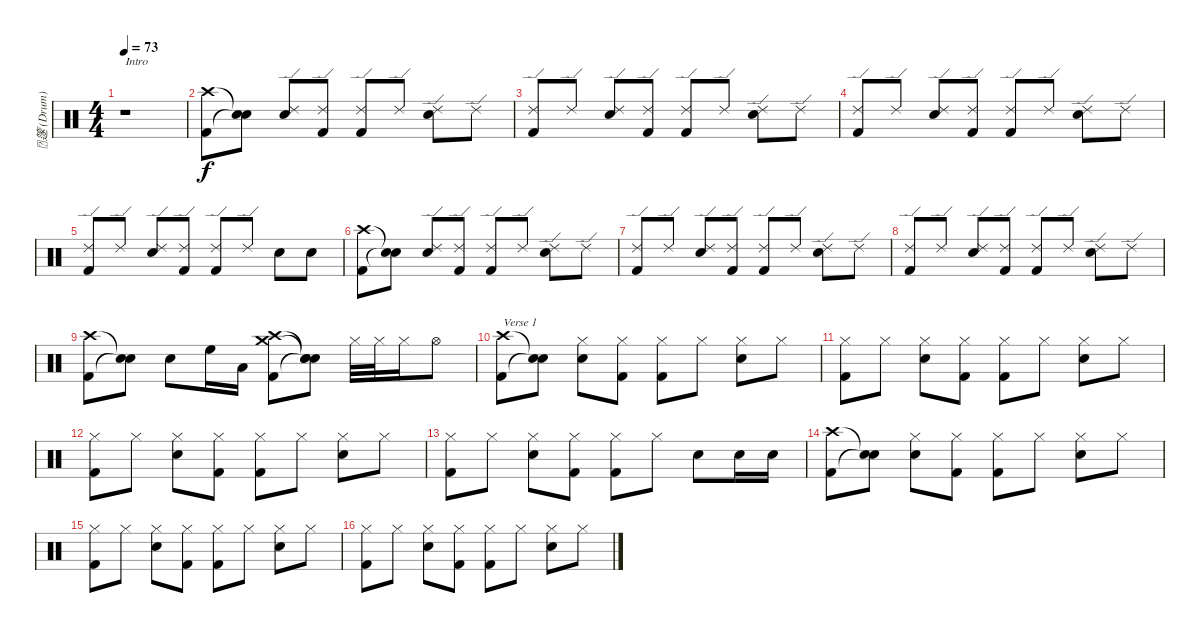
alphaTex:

\track ("篴 (Drum)" "篴 (Drum)") {instrument percussion}
\staff {score}
\articulation defaults
\ts (4 4)
\tempo 73
\clef neutral
\ks c
r.1{txt "Intro" dy f} |
("Crash high (hit)" "Kick (hit) 2").8 ("Snare (hit)"{t} "Snare (hit)"{t}).8 ("Ride (edge) 2" "Electric Snare (hit)").8 ("Ride (edge) 2" "Kick (hit) 2").8 ("Ride (edge) 2" "Kick (hit) 2").8 "Ride (edge) 2".8 ("Ride (edge) 2" "Electric Snare (hit)").8 "Ride (edge) 2".8 |
("Ride (edge) 2" "Kick (hit) 2").8 "Ride (edge) 2".8 ("Ride (edge) 2" "Electric Snare (hit)").8 ("Ride (edge) 2" "Kick (hit) 2").8 ("Ride (edge) 2" "Kick (hit) 2").8 "Ride (edge) 2".8 ("Ride (edge) 2" "Electric Snare (hit)").8 "Ride (edge) 2".8 |
("Ride (edge) 2" "Kick (hit) 2").8 "Ride (edge) 2".8 ("Ride (edge) 2" "Electric Snare (hit)").8 ("Ride (edge) 2" "Kick (hit) 2").8 ("Ride (edge) 2" "Kick (hit) 2").8 "Ride (edge) 2".8 ("Ride (edge) 2" "Electric Snare (hit)").8 "Ride (edge) 2".8 |
("Ride (edge) 2" "Kick (hit) 2").8 "Ride (edge) 2".8 ("Ride (edge) 2" "Electric Snare (hit)").8 ("Ride (edge) 2" "Kick (hit) 2").8 ("Ride (edge) 2" "Kick (hit) 2").8 "Ride (edge) 2".8 "Electric Snare (hit)".8 "Electric Snare (hit)".8 |
("Crash high (hit)" "Kick (hit) 2").8 ("Snare (hit)"{t} "Snare (hit)"{t}).8 ("Ride (edge) 2" "Electric Snare (hit)").8 ("Ride (edge) 2" "Kick (hit) 2").8 ("Ride (edge) 2" "Kick (hit) 2").8 "Ride (edge) 2".8 ("Ride (edge) 2" "Electric Snare (hit)").8 "Ride (edge) 2".8 |
("Ride (edge) 2" "Kick (hit) 2").8 "Ride (edge) 2".8 ("Ride (edge) 2" "Electric Snare (hit)").8 ("Ride (edge) 2" "Kick (hit) 2").8 ("Ride (edge) 2" "Kick (hit) 2").8 "Ride (edge) 2".8 ("Ride (edge) 2" "Electric Snare (hit)").8 "Ride (edge) 2".8 |
("Ride (edge) 2" "Kick (hit) 2").8 "Ride (edge) 2".8 ("Ride (edge) 2" "Electric Snare (hit)").8 ("Ride (edge) 2" "Kick (hit) 2").8 ("Ride (edge) 2" "Kick (hit) 2").8 "Ride (edge) 2".8 ("Ride (edge) 2" "Electric Snare (hit)").8 "Ride (edge) 2".8 |
("Crash high (hit)" "Kick (hit) 2").8 ("Snare (hit)"{t} "Snare (hit)"{t}).8 "Electric Snare (hit)".8 "High Floor Tom (hit)".16 "Low Tom (hit)".16 ("Crash high (hit)" "Crash medium (hit)" "Kick (hit) 2").8 ("Snare (hit)"{t} "Snare (hit)"{t} "Snare (hit)"{t}).8 "Hi-Hat (closed)".32 "Hi-Hat (closed)".32 "Hi-Hat (closed)".16 "Hi-Hat (open)".8 |
("Crash high (hit)" "Kick (hit) 2").8{txt "Verse 1"} ("Snare (hit)"{t} "Snare (hit)"{t}).8 ("Hi-Hat (closed)" "Electric Snare (hit)").8 ("Hi-Hat (closed)" "Kick (hit) 2").8 ("Hi-Hat (closed)" "Kick (hit) 2").8 "Hi-Hat (closed)".8 ("Hi-Hat (closed)" "Electric Snare (hit)").8 "Hi-Hat (closed)".8 |
("Hi-Hat (closed)" "Kick (hit) 2").8 "Hi-Hat (closed)".8 ("Hi-Hat (closed)" "Electric Snare (hit)").8 ("Hi-Hat (closed)" "Kick (hit) 2").8 ("Hi-Hat (closed)" "Kick (hit) 2").8 "Hi-Hat (closed)".8 ("Hi-Hat (closed)" "Electric Snare (hit)").8 "Hi-Hat (closed)".8 |
("Hi-Hat (closed)" "Kick (hit) 2").8 "Hi-Hat (closed)".8 ("Hi-Hat (closed)" "Electric Snare (hit)").8 ("Hi-Hat (closed)" "Kick (hit) 2").8 ("Hi-Hat (closed)" "Kick (hit) 2").8 "Hi-Hat (closed)".8 ("Hi-Hat (closed)" "Electric Snare (hit)").8 "Hi-Hat (closed)".8 |
("Hi-Hat (closed)" "Kick (hit) 2").8 "Hi-Hat (closed)".8 ("Hi-Hat (closed)" "Electric Snare (hit)").8 ("Hi-Hat (closed)" "Kick (hit) 2").8 ("Hi-Hat (closed)" "Kick (hit) 2").8 "Hi-Hat (closed)".8 "Electric Snare (hit)".8 "Electric Snare (hit)".16 "Electric Snare (hit)".16 |
("Crash high (hit)" "Kick (hit) 2").8 ("Snare (hit)"{t} "Snare (hit)"{t}).8 ("Hi-Hat (closed)" "Electric Snare (hit)").8 ("Hi-Hat (closed)" "Kick (hit) 2").8 ("Hi-Hat (closed)" "Kick (hit) 2").8 "Hi-Hat (closed)".8 ("Hi-Hat (closed)" "Electric Snare (hit)").8 "Hi-Hat (closed)".8 |
("Hi-Hat (closed)" "Kick (hit) 2").8 "Hi-Hat (closed)".8 ("Hi-Hat (closed)" "Electric Snare (hit)").8 ("Hi-Hat (closed)" "Kick (hit) 2").8 ("Hi-Hat (closed)" "Kick (hit) 2").8 "Hi-Hat (closed)".8 ("Hi-Hat (closed)" "Electric Snare (hit)").8 "Hi-Hat (closed)".8 |
("Hi-Hat (closed)" "Kick (hit) 2").8 "Hi-Hat (closed)".8 ("Hi-Hat (closed)" "Electric Snare (hit)").8 ("Hi-Hat (closed)" "Kick (hit) 2").8 ("Hi-Hat (closed)" "Kick (hit) 2").8 "Hi-Hat (closed)".8 ("Hi-Hat (closed)" "Electric Snare (hit)").8 "Hi-Hat (closed)".8
